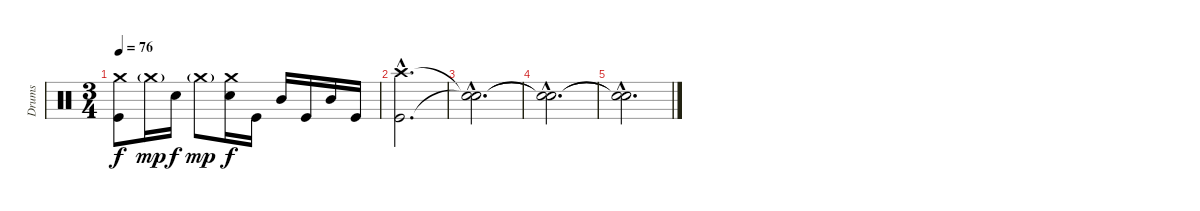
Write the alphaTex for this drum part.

\track ("Drums" "Drums") {instrument percussion}
\staff {score}
\articulation defaults
\ts (3 4)
\tempo 76
\clef neutral
\ks c
("Crash medium (hit)" "Kick (hit)").8{dy f} "Crash medium (hit)"{g}.16{dy mp} "Electric Snare (hit)".16{dy f} "Crash medium (hit)"{g}.8{dy mp} ("Crash medium (hit)" "Electric Snare (hit)").16{dy f} "Kick (hit)".16 "Mid Tom (hit)".16 "Kick (hit)".16 "Mid Tom (hit)".16 "Kick (hit)".16 |
("Crash high (hit)"{hac} "Kick (hit)"{hac}).2{d} |
("Snare (hit)"{hac t} "Snare (hit)"{hac t}).2{d} |
("Snare (hit)"{hac t} "Snare (hit)"{hac t}).2{d} |
("Snare (hit)"{hac t} "Snare (hit)"{hac t}).2{d}
